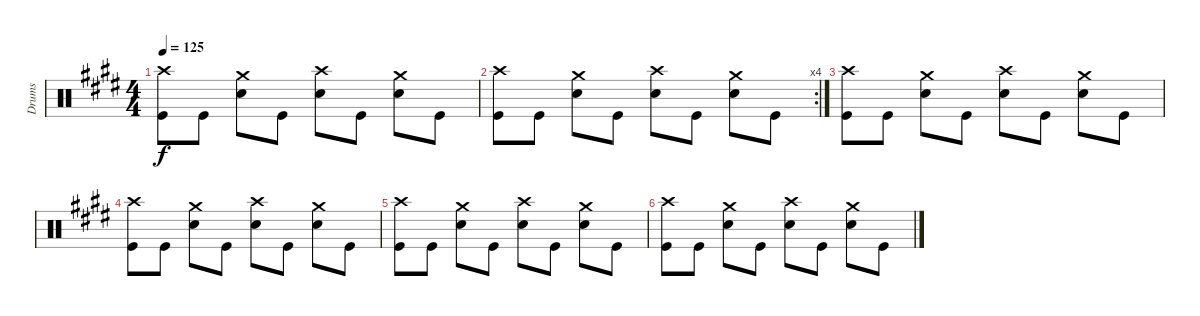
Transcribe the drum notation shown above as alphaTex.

\track ("Drums" "Drums") {instrument percussion}
\staff {score}
\articulation defaults
\ts (4 4)
\tempo 125
\clef neutral
\ks e
("Crash high (hit)" "Kick (hit)").8{dy f} "Kick (hit)".8 ("Crash medium (hit)" "Snare (hit) 2").8 "Kick (hit)".8 ("Crash high (hit)" "Snare (hit) 2").8 "Kick (hit)".8 ("Crash medium (hit)" "Snare (hit) 2").8 "Kick (hit)".8 |
\rc 4
("Crash high (hit)" "Kick (hit)").8 "Kick (hit)".8 ("Crash medium (hit)" "Snare (hit) 2").8 "Kick (hit)".8 ("Crash high (hit)" "Snare (hit) 2").8 "Kick (hit)".8 ("Crash medium (hit)" "Snare (hit) 2").8 "Kick (hit)".8 |
("Crash high (hit)" "Kick (hit)").8 "Kick (hit)".8 ("Crash medium (hit)" "Snare (hit) 2").8 "Kick (hit)".8 ("Crash high (hit)" "Snare (hit) 2").8 "Kick (hit)".8 ("Crash medium (hit)" "Snare (hit) 2").8 "Kick (hit)".8 |
("Crash high (hit)" "Kick (hit)").8 "Kick (hit)".8 ("Crash medium (hit)" "Snare (hit) 2").8 "Kick (hit)".8 ("Crash high (hit)" "Snare (hit) 2").8 "Kick (hit)".8 ("Crash medium (hit)" "Snare (hit) 2").8 "Kick (hit)".8 |
("Crash high (hit)" "Kick (hit)").8 "Kick (hit)".8 ("Crash medium (hit)" "Snare (hit) 2").8 "Kick (hit)".8 ("Crash high (hit)" "Snare (hit) 2").8 "Kick (hit)".8 ("Crash medium (hit)" "Snare (hit) 2").8 "Kick (hit)".8 |
("Crash high (hit)" "Kick (hit)").8 "Kick (hit)".8 ("Crash medium (hit)" "Snare (hit) 2").8 "Kick (hit)".8 ("Crash high (hit)" "Snare (hit) 2").8 "Kick (hit)".8 ("Crash medium (hit)" "Snare (hit) 2").8 "Kick (hit)".8
